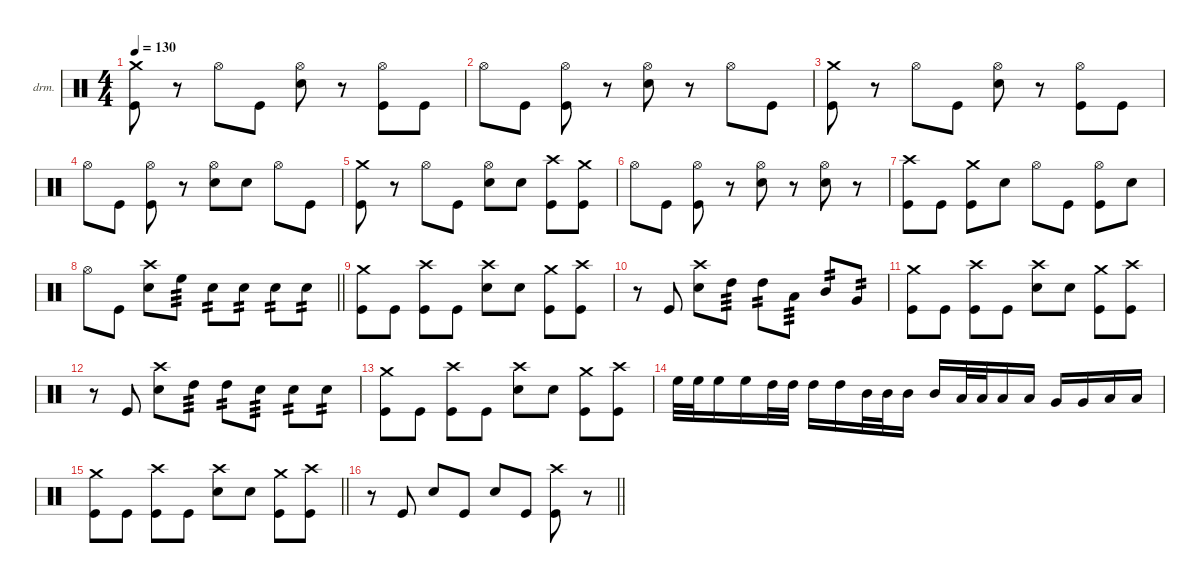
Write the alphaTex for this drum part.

\defaultSystemsLayout 4
\hideDynamics
\bracketExtendMode nobrackets
\firstSystemTrackNameOrientation horizontal
\otherSystemsTrackNameOrientation horizontal
\track ("Drums" "drm.") {instrument percussion}
\staff {score}
\articulation defaults
\ts (4 4)
\tempo 130
\clef neutral
\ks c
("Crash medium (hit)" "Kick (hit)").8{dy f} r.8 "Hi-Hat (open)".8 "Kick (hit)".8 ("Hi-Hat (open)" "Snare (hit) 2").8 r.8 ("Hi-Hat (open)" "Kick (hit)").8 "Kick (hit)".8 |
"Hi-Hat (open)".8 "Kick (hit)".8 ("Hi-Hat (open)" "Kick (hit)").8 r.8 ("Hi-Hat (open)" "Snare (hit) 2").8 r.8 "Hi-Hat (open)".8 "Kick (hit)".8 |
("Crash medium (hit)" "Kick (hit)").8 r.8 "Hi-Hat (open)".8 "Kick (hit)".8 ("Hi-Hat (open)" "Snare (hit) 2").8 r.8 ("Hi-Hat (open)" "Kick (hit)").8 "Kick (hit)".8 |
"Hi-Hat (open)".8 "Kick (hit)".8 ("Hi-Hat (open)" "Kick (hit)").8 r.8 ("Hi-Hat (open)" "Snare (hit) 2").8 "Snare (hit) 2".8 "Hi-Hat (open)".8 "Kick (hit)".8 |
("Crash medium (hit)" "Kick (hit)").8 r.8 "Hi-Hat (open)".8 "Kick (hit)".8 ("Hi-Hat (open)" "Snare (hit) 2").8 "Snare (hit) 2".8 ("Crash high (hit)" "Kick (hit)").8 ("Crash medium (hit)" "Kick (hit)").8 |
"Hi-Hat (open)".8 "Kick (hit)".8 ("Hi-Hat (open)" "Kick (hit)").8 r.8 ("Hi-Hat (open)" "Snare (hit) 2").8 r.8 ("Hi-Hat (open)" "Snare (hit) 2").8 r.8 |
("Crash high (hit)" "Kick (hit)").8 "Kick (hit)".8 ("Crash medium (hit)" "Kick (hit)").8 "Snare (hit) 2".8 "Hi-Hat (open)".8 "Kick (hit)".8 ("Hi-Hat (open)" "Kick (hit)").8 "Snare (hit) 2".8 |
\barLineRight lightlight "Hi-Hat (open)".8 "Kick (hit)".8
("Crash high (hit)" "Snare (hit) 2").8 "High Floor Tom (hit)".8{tp 3} "Snare (hit) 2".8{tp 2} "Snare (hit) 2".8{tp 2} "Snare (hit) 2".8{tp 2} "Snare (hit) 2".8{tp 2} |
\section ("" "")
("Crash medium (hit)" "Kick (hit)").8 "Kick (hit)".8 ("Crash high (hit)" "Kick (hit)").8 "Kick (hit)".8 ("Crash high (hit)" "Snare (hit) 2").8 "Snare (hit) 2".8 ("Crash medium (hit)" "Kick (hit)").8 ("Crash high (hit)" "Kick (hit)").8 |
r.8 "Kick (hit)".8 ("Crash high (hit)" "Snare (hit) 2").8 "High Tom (hit)".8{tp 3} "High Tom (hit)".8{tp 2} "Low Tom (hit)".8{tp 3} "Mid Tom (hit)".8{tp 2} "Very Low Tom (hit)".8{tp 2} |
("Crash medium (hit)" "Kick (hit)").8 "Kick (hit)".8 ("Crash high (hit)" "Kick (hit)").8 "Kick (hit)".8 ("Crash high (hit)" "Snare (hit) 2").8 "Snare (hit) 2".8 ("Crash medium (hit)" "Kick (hit)").8 ("Crash high (hit)" "Kick (hit)").8 |
r.8 "Kick (hit)".8 ("Crash high (hit)" "Snare (hit) 2").8 "High Tom (hit)".8{tp 3} "High Tom (hit)".8{tp 2} "Snare (hit) 2".8{tp 3} "Snare (hit) 2".8{tp 2} "Snare (hit) 2".8{tp 2} |
("Crash medium (hit)" "Kick (hit)").8 "Kick (hit)".8 ("Crash high (hit)" "Kick (hit)").8 "Kick (hit)".8 ("Crash high (hit)" "Snare (hit) 2").8 "Snare (hit) 2".8 ("Crash medium (hit)" "Kick (hit)").8 ("Crash high (hit)" "Kick (hit)").8 |
"High Floor Tom (hit)".32 "High Floor Tom (hit)".32 "High Floor Tom (hit)".16 "High Floor Tom (hit)".16 "High Tom (hit)".32 "High Tom (hit)".32 "High Tom (hit)".16 "High Tom (hit)".16 "Mid Tom (hit)".32 "Mid Tom (hit)".32 "Mid Tom (hit)".16 "Mid Tom (hit)".16 "Low Tom (hit)".32 "Low Tom (hit)".32 "Low Tom (hit)".16 "Low Tom (hit)".16 "Very Low Tom (hit)".16 "Very Low Tom (hit)".16 "Low Floor Tom (hit)".16 "Low Floor Tom (hit)".16 |
\barLineRight lightlight
("Crash medium (hit)" "Kick (hit)").8 "Kick (hit)".8 ("Crash high (hit)" "Kick (hit)").8 "Kick (hit)".8 ("Crash high (hit)" "Snare (hit) 2").8 "Snare (hit) 2".8 ("Crash medium (hit)" "Kick (hit)").8 ("Crash high (hit)" "Kick (hit)").8 |
\section ("" "")
\barLineRight lightlight
r.8 "Kick (hit)".8 "Snare (hit) 2".8 "Kick (hit)".8 "Snare (hit) 2".8 "Kick (hit)".8 ("Crash high (hit)" "Kick (hit)").8 r.8
